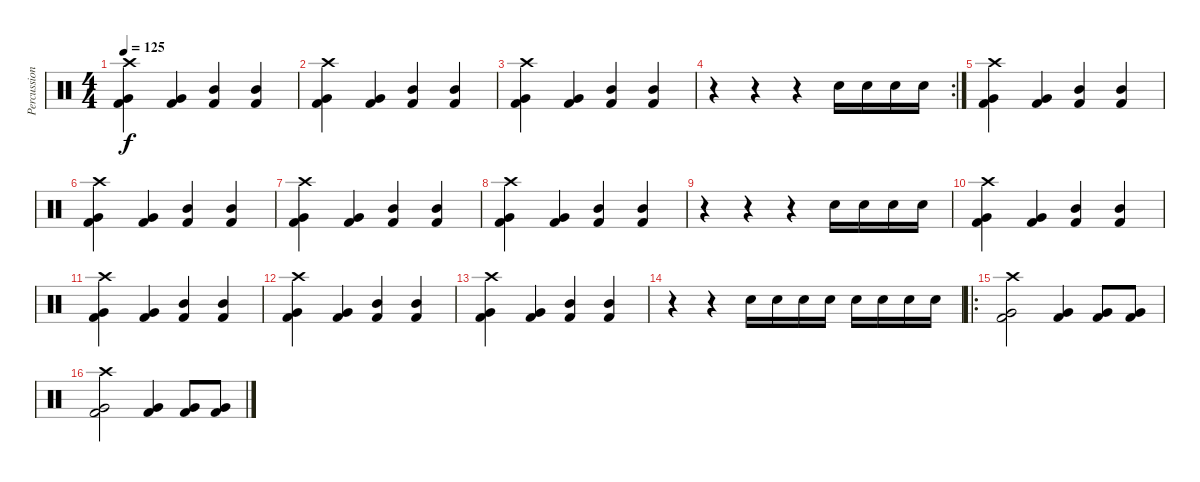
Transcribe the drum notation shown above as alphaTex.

\track ("Percussion" "Percussion") {instrument percussion}
\staff {score}
\articulation defaults
\ts (4 4)
\tempo 125
\clef neutral
\ks c
("Crash high (hit)" "Very Low Tom (hit)" "Kick (hit) 2").4{dy f} ("Very Low Tom (hit)" "Kick (hit) 2").4 ("Mid Tom (hit)" "Kick (hit) 2").4 ("Mid Tom (hit)" "Kick (hit) 2").4 |
("Crash high (hit)" "Very Low Tom (hit)" "Kick (hit) 2").4 ("Very Low Tom (hit)" "Kick (hit) 2").4 ("Mid Tom (hit)" "Kick (hit) 2").4 ("Mid Tom (hit)" "Kick (hit) 2").4 |
("Crash high (hit)" "Very Low Tom (hit)" "Kick (hit) 2").4 ("Very Low Tom (hit)" "Kick (hit) 2").4 ("Mid Tom (hit)" "Kick (hit) 2").4 ("Mid Tom (hit)" "Kick (hit) 2").4 |
\rc 2
r.4 r.4 r.4 "Snare (hit) 2".16 "Snare (hit) 2".16 "Snare (hit) 2".16 "Snare (hit) 2".16 |
("Crash high (hit)" "Very Low Tom (hit)" "Kick (hit) 2").4 ("Very Low Tom (hit)" "Kick (hit) 2").4 ("Mid Tom (hit)" "Kick (hit) 2").4 ("Mid Tom (hit)" "Kick (hit) 2").4 |
("Crash high (hit)" "Very Low Tom (hit)" "Kick (hit) 2").4 ("Very Low Tom (hit)" "Kick (hit) 2").4 ("Mid Tom (hit)" "Kick (hit) 2").4 ("Mid Tom (hit)" "Kick (hit) 2").4 |
("Crash high (hit)" "Very Low Tom (hit)" "Kick (hit) 2").4 ("Very Low Tom (hit)" "Kick (hit) 2").4 ("Mid Tom (hit)" "Kick (hit) 2").4 ("Mid Tom (hit)" "Kick (hit) 2").4 |
("Crash high (hit)" "Very Low Tom (hit)" "Kick (hit) 2").4 ("Very Low Tom (hit)" "Kick (hit) 2").4 ("Mid Tom (hit)" "Kick (hit) 2").4 ("Mid Tom (hit)" "Kick (hit) 2").4 |
r.4 r.4 r.4 "Snare (hit) 2".16 "Snare (hit) 2".16 "Snare (hit) 2".16 "Snare (hit) 2".16 |
("Crash high (hit)" "Very Low Tom (hit)" "Kick (hit) 2").4 ("Very Low Tom (hit)" "Kick (hit) 2").4 ("Mid Tom (hit)" "Kick (hit) 2").4 ("Mid Tom (hit)" "Kick (hit) 2").4 |
("Crash high (hit)" "Very Low Tom (hit)" "Kick (hit) 2").4 ("Very Low Tom (hit)" "Kick (hit) 2").4 ("Mid Tom (hit)" "Kick (hit) 2").4 ("Mid Tom (hit)" "Kick (hit) 2").4 |
("Crash high (hit)" "Very Low Tom (hit)" "Kick (hit) 2").4 ("Very Low Tom (hit)" "Kick (hit) 2").4 ("Mid Tom (hit)" "Kick (hit) 2").4 ("Mid Tom (hit)" "Kick (hit) 2").4 |
("Crash high (hit)" "Very Low Tom (hit)" "Kick (hit) 2").4 ("Very Low Tom (hit)" "Kick (hit) 2").4 ("Mid Tom (hit)" "Kick (hit) 2").4 ("Mid Tom (hit)" "Kick (hit) 2").4 |
r.4 r.4 "Snare (hit) 2".16 "Snare (hit) 2".16 "Snare (hit) 2".16 "Snare (hit) 2".16 "Snare (hit) 2".16 "Snare (hit) 2".16 "Snare (hit) 2".16 "Snare (hit) 2".16 |
\ro
("Crash high (hit)" "Very Low Tom (hit)" "Kick (hit) 2").2 ("Very Low Tom (hit)" "Kick (hit) 2").4 ("Very Low Tom (hit)" "Kick (hit) 2").8 ("Very Low Tom (hit)" "Kick (hit) 2").8 |
("Crash high (hit)" "Very Low Tom (hit)" "Kick (hit) 2").2 ("Very Low Tom (hit)" "Kick (hit) 2").4 ("Very Low Tom (hit)" "Kick (hit) 2").8 ("Very Low Tom (hit)" "Kick (hit) 2").8
